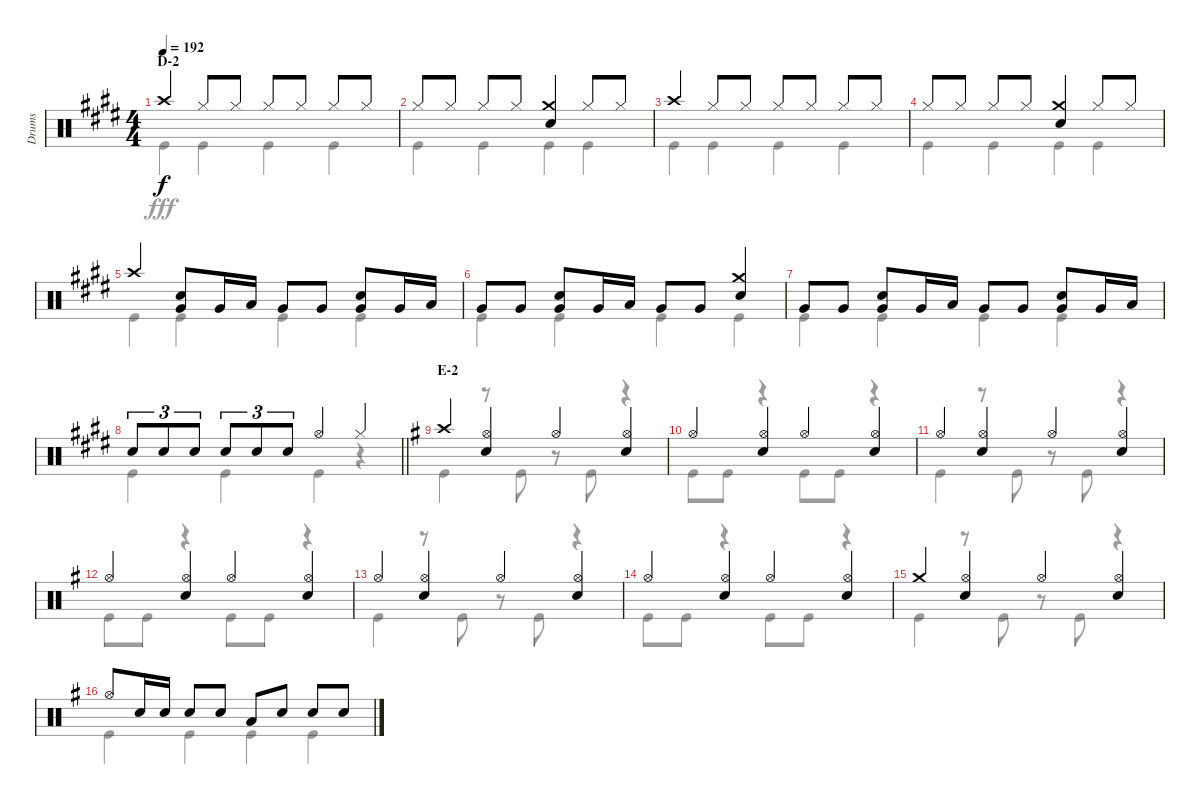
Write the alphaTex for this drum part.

\track ("Drums" "Drums") {instrument percussion}
\staff {score}
\articulation defaults
\voice
\ts (4 4)
\section ("" "D-2")
\tempo 192
\clef neutral
\ks e "Crash high (hit)".4{dy f} "Hi-Hat (closed)".8 "Hi-Hat (closed)".8 "Hi-Hat (closed)".8 "Hi-Hat (closed)".8 "Hi-Hat (closed)".8 "Hi-Hat (closed)".8
|
"Hi-Hat (closed)".8 "Hi-Hat (closed)".8 "Hi-Hat (closed)".8 "Hi-Hat (closed)".8 ("Crash medium (hit)" "Snare (hit) 2").4 "Hi-Hat (closed)".8 "Hi-Hat (closed)".8 |
"Crash high (hit)".4 "Hi-Hat (closed)".8 "Hi-Hat (closed)".8 "Hi-Hat (closed)".8 "Hi-Hat (closed)".8 "Hi-Hat (closed)".8 "Hi-Hat (closed)".8 |
"Hi-Hat (closed)".8 "Hi-Hat (closed)".8 "Hi-Hat (closed)".8 "Hi-Hat (closed)".8 ("Crash medium (hit)" "Snare (hit) 2").4 "Hi-Hat (closed)".8 "Hi-Hat (closed)".8 |
"Crash high (hit)".4 ("Snare (hit) 2" "Very Low Tom (hit)").8 "Very Low Tom (hit)".16 "Low Tom (hit)".16 "Very Low Tom (hit)".8 "Very Low Tom (hit)".8 ("Snare (hit) 2" "Very Low Tom (hit)").8 "Very Low Tom (hit)".16 "Low Tom (hit)".16 |
"Very Low Tom (hit)".8 "Very Low Tom (hit)".8 ("Snare (hit) 2" "Very Low Tom (hit)").8 "Very Low Tom (hit)".16 "Low Tom (hit)".16 "Very Low Tom (hit)".8 "Very Low Tom (hit)".8 ("Crash medium (hit)" "Snare (hit) 2").4 |
"Very Low Tom (hit)".8 "Very Low Tom (hit)".8 ("Snare (hit) 2" "Very Low Tom (hit)").8 "Very Low Tom (hit)".16 "Low Tom (hit)".16 "Very Low Tom (hit)".8 "Very Low Tom (hit)".8 ("Snare (hit) 2" "Very Low Tom (hit)").8 "Very Low Tom (hit)".16 "Low Tom (hit)".16 |
\barLineRight lightlight "Snare (hit) 2".8{tu (3 2)} "Snare (hit) 2".8{tu (3 2)} "Snare (hit) 2".8{tu (3 2)} "Snare (hit) 2".8{tu (3 2)} "Snare (hit) 2".8{tu (3 2)} "Snare (hit) 2".8{tu (3 2)} "Hi-Hat (open)".4 "Hi-Hat (closed)".4
|
\section ("" "E-2")
\ks g "Crash high (hit)".4
("Hi-Hat (open)" "Snare (hit) 2").4 "Hi-Hat (open)".4 ("Hi-Hat (open)" "Snare (hit) 2").4 |
"Hi-Hat (open)".4 ("Hi-Hat (open)" "Snare (hit) 2").4 "Hi-Hat (open)".4 ("Hi-Hat (open)" "Snare (hit) 2").4 |
"Hi-Hat (open)".4 ("Hi-Hat (open)" "Snare (hit) 2").4 "Hi-Hat (open)".4 ("Hi-Hat (open)" "Snare (hit) 2").4 |
"Hi-Hat (open)".4 ("Hi-Hat (open)" "Snare (hit) 2").4 "Hi-Hat (open)".4 ("Hi-Hat (open)" "Snare (hit) 2").4 |
"Hi-Hat (open)".4 ("Hi-Hat (open)" "Snare (hit) 2").4 "Hi-Hat (open)".4 ("Hi-Hat (open)" "Snare (hit) 2").4 |
"Hi-Hat (open)".4 ("Hi-Hat (open)" "Snare (hit) 2").4 "Hi-Hat (open)".4 ("Hi-Hat (open)" "Snare (hit) 2").4 |
"Crash medium (hit)".4 ("Hi-Hat (open)" "Snare (hit) 2").4 "Hi-Hat (open)".4 ("Hi-Hat (open)" "Snare (hit) 2").4 |
"Hi-Hat (open)".8 "Snare (hit) 2".16 "Snare (hit) 2".16 "Snare (hit) 2".8 "Snare (hit) 2".8 "Low Tom (hit)".8 "Snare (hit) 2".8 "Snare (hit) 2".8 "Snare (hit) 2".8
\voice
\clef neutral
\ottava regular
\simile none
\ks e "Kick (hit)".4{dy fff} "Kick (hit)".4 "Kick (hit)".4 "Kick (hit)".4
|
"Kick (hit)".4 "Kick (hit)".4 "Kick (hit)".4 "Kick (hit)".4 |
"Kick (hit)".4 "Kick (hit)".4 "Kick (hit)".4 "Kick (hit)".4 |
"Kick (hit)".4 "Kick (hit)".4 "Kick (hit)".4 "Kick (hit)".4 |
"Kick (hit)".4 "Kick (hit)".4 "Kick (hit)".4 "Kick (hit)".4 |
"Kick (hit)".4 "Kick (hit)".4 "Kick (hit)".4 "Kick (hit)".4 |
"Kick (hit)".4 "Kick (hit)".4 "Kick (hit)".4 "Kick (hit)".4 |
\barLineRight lightlight "Kick (hit)".4 "Kick (hit)".4 "Kick (hit)".4
r.4 |
\ks g "Kick (hit)".4
r.8 "Kick (hit)".8 r.8 "Kick (hit)".8 r.4 |
"Kick (hit)".8 "Kick (hit)".8 r.4 "Kick (hit)".8 "Kick (hit)".8 r.4 |
"Kick (hit)".4 r.8 "Kick (hit)".8 r.8 "Kick (hit)".8 r.4 |
"Kick (hit)".8 "Kick (hit)".8 r.4 "Kick (hit)".8 "Kick (hit)".8 r.4 |
"Kick (hit)".4 r.8 "Kick (hit)".8 r.8 "Kick (hit)".8 r.4 |
"Kick (hit)".8 "Kick (hit)".8 r.4 "Kick (hit)".8 "Kick (hit)".8 r.4 |
"Kick (hit)".4 r.8 "Kick (hit)".8 r.8 "Kick (hit)".8 r.4 |
"Kick (hit)".4 "Kick (hit)".4 "Kick (hit)".4 "Kick (hit)".4
